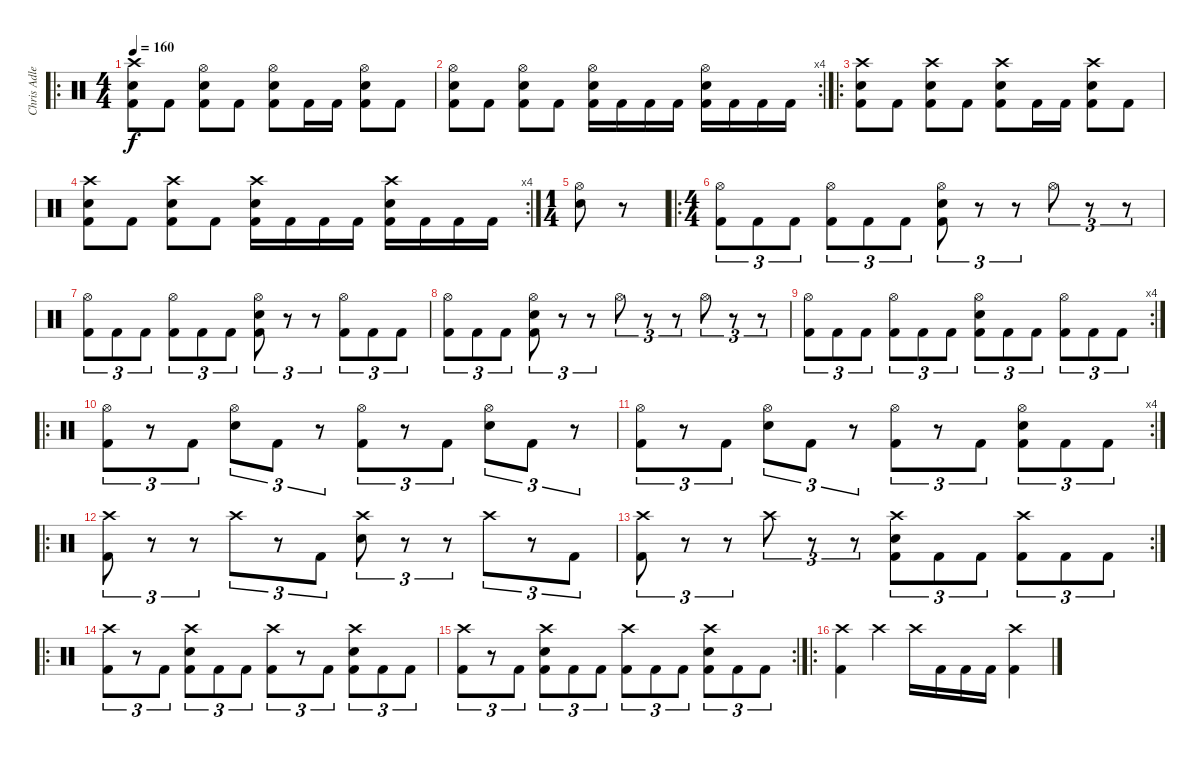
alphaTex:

\track ("Chris Adler" "Chris Adle") {instrument percussion}
\staff {score}
\articulation defaults
\ro
\ts (4 4)
\tempo 160
\clef neutral
\ks c
("Crash high (hit)" "Electric Snare (hit)" "Kick (hit) 2").8{dy f} "Kick (hit) 2".8 ("Hi-Hat (open)" "Electric Snare (hit)" "Kick (hit) 2").8 "Kick (hit) 2".8 ("Hi-Hat (open)" "Electric Snare (hit)" "Kick (hit) 2").8 "Kick (hit) 2".16 "Kick (hit) 2".16 ("Hi-Hat (open)" "Electric Snare (hit)" "Kick (hit) 2").8 "Kick (hit) 2".8 |
\rc 4
("Hi-Hat (open)" "Electric Snare (hit)" "Kick (hit) 2").8 "Kick (hit) 2".8 ("Hi-Hat (open)" "Electric Snare (hit)" "Kick (hit) 2").8 "Kick (hit) 2".8 ("Hi-Hat (open)" "Electric Snare (hit)" "Kick (hit) 2").16 "Kick (hit) 2".16 "Kick (hit) 2".16 "Kick (hit) 2".16 ("Hi-Hat (open)" "Electric Snare (hit)" "Kick (hit) 2").16 "Kick (hit) 2".16 "Kick (hit) 2".16 "Kick (hit) 2".16 |
\ro
("Crash high (hit)" "Electric Snare (hit)" "Kick (hit) 2").8 "Kick (hit) 2".8 ("Crash high (hit)" "Electric Snare (hit)" "Kick (hit) 2").8 "Kick (hit) 2".8 ("Crash high (hit)" "Electric Snare (hit)" "Kick (hit) 2").8 "Kick (hit) 2".16 "Kick (hit) 2".16 ("Crash high (hit)" "Electric Snare (hit)" "Kick (hit) 2").8 "Kick (hit) 2".8 |
\rc 4
("Crash high (hit)" "Electric Snare (hit)" "Kick (hit) 2").8 "Kick (hit) 2".8 ("Crash high (hit)" "Electric Snare (hit)" "Kick (hit) 2").8 "Kick (hit) 2".8 ("Crash high (hit)" "Electric Snare (hit)" "Kick (hit) 2").16 "Kick (hit) 2".16 "Kick (hit) 2".16 "Kick (hit) 2".16 ("Crash high (hit)" "Electric Snare (hit)" "Kick (hit) 2").16 "Kick (hit) 2".16 "Kick (hit) 2".16 "Kick (hit) 2".16 |
\ts (1 4)
("Hi-Hat (open)" "Electric Snare (hit)").8 r.8 |
\ro
\ts (4 4)
("Hi-Hat (open)" "Kick (hit) 2").8{tu (3 2)} "Kick (hit) 2".8{tu (3 2)} "Kick (hit) 2".8{tu (3 2)} ("Hi-Hat (open)" "Kick (hit) 2").8{tu (3 2)} "Kick (hit) 2".8{tu (3 2)} "Kick (hit) 2".8{tu (3 2)} ("Hi-Hat (open)" "Electric Snare (hit)" "Kick (hit) 2").8{tu (3 2)} r.8{tu (3 2)} r.8{tu (3 2)} "Hi-Hat (open)".8{tu (3 2)} r.8{tu (3 2)} r.8{tu (3 2)} |
("Hi-Hat (open)" "Kick (hit) 2").8{tu (3 2)} "Kick (hit) 2".8{tu (3 2)} "Kick (hit) 2".8{tu (3 2)} ("Hi-Hat (open)" "Kick (hit) 2").8{tu (3 2)} "Kick (hit) 2".8{tu (3 2)} "Kick (hit) 2".8{tu (3 2)} ("Hi-Hat (open)" "Electric Snare (hit)" "Kick (hit) 2").8{tu (3 2)} r.8{tu (3 2)} r.8{tu (3 2)} ("Hi-Hat (open)" "Kick (hit) 2").8{tu (3 2)} "Kick (hit) 2".8{tu (3 2)} "Kick (hit) 2".8{tu (3 2)} |
("Hi-Hat (open)" "Kick (hit) 2").8{tu (3 2)} "Kick (hit) 2".8{tu (3 2)} "Kick (hit) 2".8{tu (3 2)} ("Hi-Hat (open)" "Electric Snare (hit)" "Kick (hit) 2").8{tu (3 2)} r.8{tu (3 2)} r.8{tu (3 2)} "Hi-Hat (open)".8{tu (3 2)} r.8{tu (3 2)} r.8{tu (3 2)} "Hi-Hat (open)".8{tu (3 2)} r.8{tu (3 2)} r.8{tu (3 2)} |
\rc 4
("Hi-Hat (open)" "Kick (hit) 2").8{tu (3 2)} "Kick (hit) 2".8{tu (3 2)} "Kick (hit) 2".8{tu (3 2)} ("Hi-Hat (open)" "Kick (hit) 2").8{tu (3 2)} "Kick (hit) 2".8{tu (3 2)} "Kick (hit) 2".8{tu (3 2)} ("Hi-Hat (open)" "Electric Snare (hit)" "Kick (hit) 2").8{tu (3 2)} "Kick (hit) 2".8{tu (3 2)} "Kick (hit) 2".8{tu (3 2)} ("Hi-Hat (open)" "Kick (hit) 2").8{tu (3 2)} "Kick (hit) 2".8{tu (3 2)} "Kick (hit) 2".8{tu (3 2)} |
\ro
("Hi-Hat (open)" "Kick (hit) 2").8{tu (3 2)} r.8{tu (3 2)} "Kick (hit) 2".8{tu (3 2)} ("Hi-Hat (open)" "Electric Snare (hit)").8{tu (3 2)} "Kick (hit) 2".8{tu (3 2)} r.8{tu (3 2)} ("Hi-Hat (open)" "Kick (hit) 2").8{tu (3 2)} r.8{tu (3 2)} "Kick (hit) 2".8{tu (3 2)} ("Hi-Hat (open)" "Electric Snare (hit)").8{tu (3 2)} "Kick (hit) 2".8{tu (3 2)} r.8{tu (3 2)} |
\rc 4
("Hi-Hat (open)" "Kick (hit) 2").8{tu (3 2)} r.8{tu (3 2)} "Kick (hit) 2".8{tu (3 2)} ("Hi-Hat (open)" "Electric Snare (hit)").8{tu (3 2)} "Kick (hit) 2".8{tu (3 2)} r.8{tu (3 2)} ("Hi-Hat (open)" "Kick (hit) 2").8{tu (3 2)} r.8{tu (3 2)} "Kick (hit) 2".8{tu (3 2)} ("Hi-Hat (open)" "Electric Snare (hit)" "Kick (hit) 2").8{tu (3 2)} "Kick (hit) 2".8{tu (3 2)} "Kick (hit) 2".8{tu (3 2)} |
\ro
("Crash high (hit)" "Kick (hit) 2").8{tu (3 2)} r.8{tu (3 2)} r.8{tu (3 2)} "Crash high (hit)".8{tu (3 2)} r.8{tu (3 2)} "Kick (hit) 2".8{tu (3 2)} ("Crash high (hit)" "Electric Snare (hit)").8{tu (3 2)} r.8{tu (3 2)} r.8{tu (3 2)} "Crash high (hit)".8{tu (3 2)} r.8{tu (3 2)} "Kick (hit) 2".8{tu (3 2)} |
\rc 2
("Crash high (hit)" "Kick (hit) 2").8{tu (3 2)} r.8{tu (3 2)} r.8{tu (3 2)} "Crash high (hit)".8{tu (3 2)} r.8{tu (3 2)} r.8{tu (3 2)} ("Crash high (hit)" "Electric Snare (hit)" "Kick (hit) 2").8{tu (3 2)} "Kick (hit) 2".8{tu (3 2)} "Kick (hit) 2".8{tu (3 2)} ("Crash high (hit)" "Kick (hit) 2").8{tu (3 2)} "Kick (hit) 2".8{tu (3 2)} "Kick (hit) 2".8{tu (3 2)} |
\ro
("Crash high (hit)" "Kick (hit) 2").8{tu (3 2)} r.8{tu (3 2)} "Kick (hit) 2".8{tu (3 2)} ("Crash high (hit)" "Electric Snare (hit)" "Kick (hit) 2").8{tu (3 2)} "Kick (hit) 2".8{tu (3 2)} "Kick (hit) 2".8{tu (3 2)} ("Crash high (hit)" "Kick (hit) 2").8{tu (3 2)} r.8{tu (3 2)} "Kick (hit) 2".8{tu (3 2)} ("Crash high (hit)" "Electric Snare (hit)" "Kick (hit) 2").8{tu (3 2)} "Kick (hit) 2".8{tu (3 2)} "Kick (hit) 2".8{tu (3 2)} |
\rc 2
("Crash high (hit)" "Kick (hit) 2").8{tu (3 2)} r.8{tu (3 2)} "Kick (hit) 2".8{tu (3 2)} ("Crash high (hit)" "Electric Snare (hit)" "Kick (hit) 2").8{tu (3 2)} "Kick (hit) 2".8{tu (3 2)} "Kick (hit) 2".8{tu (3 2)} ("Crash high (hit)" "Kick (hit) 2").8{tu (3 2)} "Kick (hit) 2".8{tu (3 2)} "Kick (hit) 2".8{tu (3 2)} ("Crash high (hit)" "Electric Snare (hit)" "Kick (hit) 2").8{tu (3 2)} "Kick (hit) 2".8{tu (3 2)} "Kick (hit) 2".8{tu (3 2)} |
\ro
("Crash high (hit)" "Kick (hit) 2").4 "Crash high (hit)".4 "Crash high (hit)".16 "Kick (hit) 2".16 "Kick (hit) 2".16 "Kick (hit) 2".16 ("Crash high (hit)" "Kick (hit) 2").4
